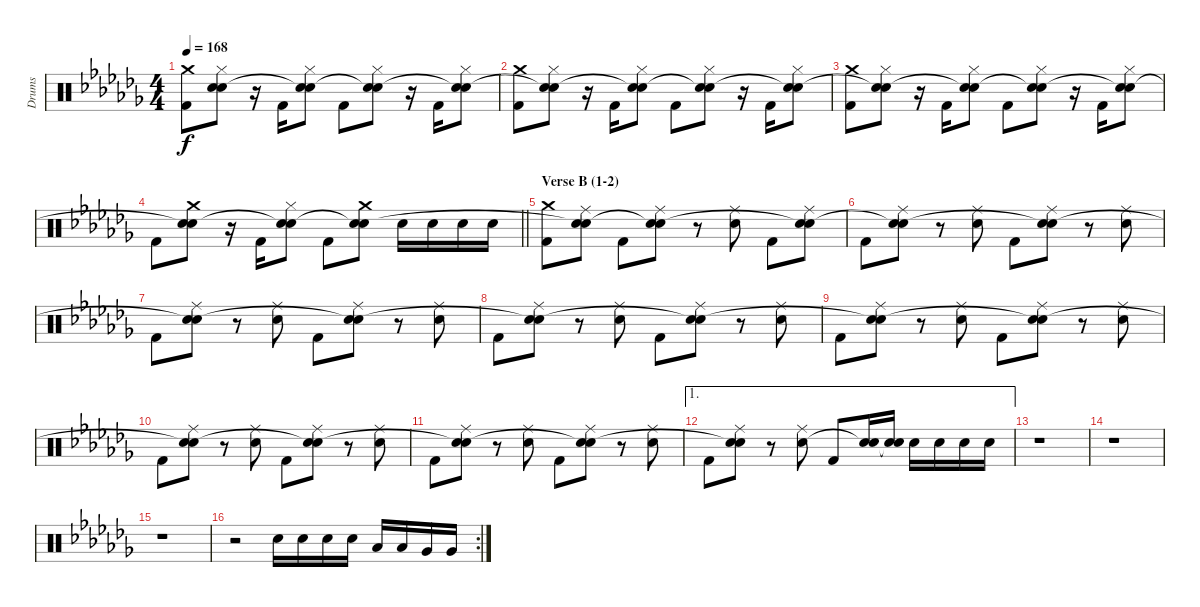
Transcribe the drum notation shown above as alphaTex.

\track ("Drums" "Drums") {instrument percussion}
\staff {score}
\articulation defaults
\ts (4 4)
\tempo 168
\clef neutral
\ks abminor
("Crash medium (hit)" "Kick (hit) 2").8{dy f} ("Hi-Hat (closed)" "Electric Snare (hit)" "Snare (hit)"{t}).8 r.16 "Kick (hit) 2".16 ("Hi-Hat (closed)" "Electric Snare (hit)" "Snare (hit)"{t}).8 "Kick (hit) 2".8 ("Hi-Hat (closed)" "Electric Snare (hit)" "Snare (hit)"{t}).8 r.16 "Kick (hit) 2".16 ("Hi-Hat (closed)" "Electric Snare (hit)" "Snare (hit)"{t}).8 |
("Crash medium (hit)" "Kick (hit) 2").8 ("Hi-Hat (closed)" "Electric Snare (hit)" "Snare (hit)"{t}).8 r.16 "Kick (hit) 2".16 ("Hi-Hat (closed)" "Electric Snare (hit)" "Snare (hit)"{t}).8 "Kick (hit) 2".8 ("Hi-Hat (closed)" "Electric Snare (hit)" "Snare (hit)"{t}).8 r.16 "Kick (hit) 2".16 ("Hi-Hat (closed)" "Electric Snare (hit)" "Snare (hit)"{t}).8 |
("Crash medium (hit)" "Kick (hit) 2").8 ("Hi-Hat (closed)" "Electric Snare (hit)" "Snare (hit)"{t}).8 r.16 "Kick (hit) 2".16 ("Hi-Hat (closed)" "Electric Snare (hit)" "Snare (hit)"{t}).8 "Kick (hit) 2".8 ("Hi-Hat (closed)" "Electric Snare (hit)" "Snare (hit)"{t}).8 r.16 "Kick (hit) 2".16 ("Hi-Hat (closed)" "Electric Snare (hit)" "Snare (hit)"{t}).8 |
\barLineRight lightlight "Kick (hit) 2".8
("Crash medium (hit)" "Electric Snare (hit)" "Snare (hit)"{t}).8 r.16 "Kick (hit) 2".16 ("Hi-Hat (closed)" "Electric Snare (hit)" "Snare (hit)"{t}).8 "Kick (hit) 2".8 ("Crash medium (hit)" "Electric Snare (hit)" "Snare (hit)"{t}).8 "Electric Snare (hit)".16 "Electric Snare (hit)".16 "Electric Snare (hit)".16 "Electric Snare (hit)".16 |
\section ("" "Verse B (1-2)")
("Crash medium (hit)" "Kick (hit) 2").8 ("Ride (middle)" "Electric Snare (hit)" "Snare (hit)"{t}).8 "Kick (hit) 2".8 ("Ride (middle)" "Electric Snare (hit)" "Snare (hit)"{t}).8 r.8 ("Ride (middle)" "Electric Snare (hit)").8 "Kick (hit) 2".8 ("Ride (middle)" "Electric Snare (hit)" "Snare (hit)"{t}).8 |
"Kick (hit) 2".8 ("Ride (middle)" "Electric Snare (hit)" "Snare (hit)"{t}).8 r.8 ("Ride (middle)" "Electric Snare (hit)").8 "Kick (hit) 2".8 ("Ride (middle)" "Electric Snare (hit)" "Snare (hit)"{t}).8 r.8 ("Ride (middle)" "Electric Snare (hit)").8 |
"Kick (hit) 2".8 ("Ride (middle)" "Electric Snare (hit)" "Snare (hit)"{t}).8 r.8 ("Ride (middle)" "Electric Snare (hit)").8 "Kick (hit) 2".8 ("Ride (middle)" "Electric Snare (hit)" "Snare (hit)"{t}).8 r.8 ("Ride (middle)" "Electric Snare (hit)").8 |
"Kick (hit) 2".8 ("Ride (middle)" "Electric Snare (hit)" "Snare (hit)"{t}).8 r.8 ("Ride (middle)" "Electric Snare (hit)").8 "Kick (hit) 2".8 ("Ride (middle)" "Electric Snare (hit)" "Snare (hit)"{t}).8 r.8 ("Ride (middle)" "Electric Snare (hit)").8 |
"Kick (hit) 2".8 ("Ride (middle)" "Electric Snare (hit)" "Snare (hit)"{t}).8 r.8 ("Ride (middle)" "Electric Snare (hit)").8 "Kick (hit) 2".8 ("Ride (middle)" "Electric Snare (hit)" "Snare (hit)"{t}).8 r.8 ("Ride (middle)" "Electric Snare (hit)").8 |
"Kick (hit) 2".8 ("Ride (middle)" "Electric Snare (hit)" "Snare (hit)"{t}).8 r.8 ("Ride (middle)" "Electric Snare (hit)").8 "Kick (hit) 2".8 ("Ride (middle)" "Electric Snare (hit)" "Snare (hit)"{t}).8 r.8 ("Ride (middle)" "Electric Snare (hit)").8 |
"Kick (hit) 2".8 ("Ride (middle)" "Electric Snare (hit)" "Snare (hit)"{t}).8 r.8 ("Ride (middle)" "Electric Snare (hit)").8 "Kick (hit) 2".8 ("Ride (middle)" "Electric Snare (hit)" "Snare (hit)"{t}).8 r.8 ("Ride (middle)" "Electric Snare (hit)").8 |
\ae 1 "Kick (hit) 2".8
("Ride (middle)" "Electric Snare (hit)" "Snare (hit)"{t}).8 r.8 ("Ride (middle)" "Electric Snare (hit)").8 "Kick (hit) 2".8 ("Electric Snare (hit)" "Snare (hit)"{t}).16 ("Electric Snare (hit)" "Snare (hit)"{t}).16 "Electric Snare (hit)".16 "Electric Snare (hit)".16 "Electric Snare (hit)".16 "Electric Snare (hit)".16 |
r.1 |
r.1 |
r.1 |
\rc 2
r.2 "Electric Snare (hit)".16 "Electric Snare (hit)".16 "Electric Snare (hit)".16 "Electric Snare (hit)".16 "Low Tom (hit)".16 "Low Tom (hit)".16 "Very Low Tom (hit)".16 "Very Low Tom (hit)".16
